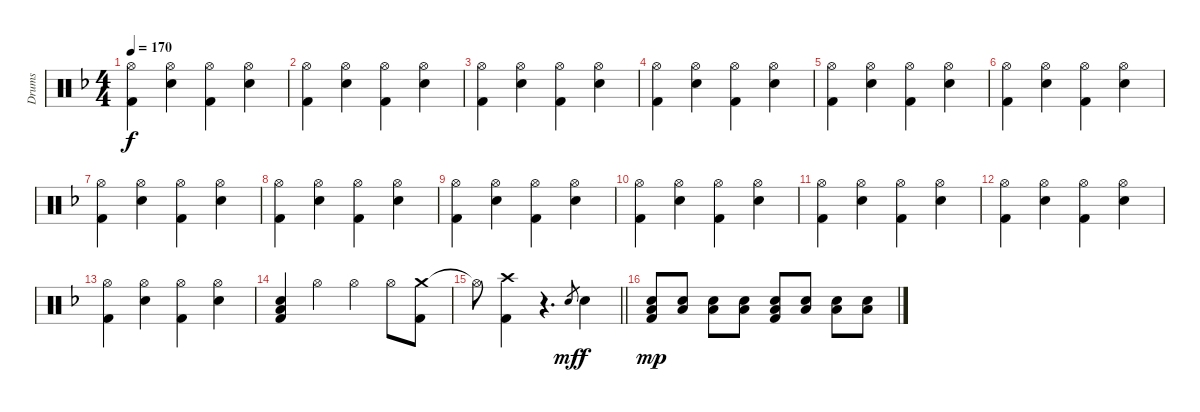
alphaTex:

\track ("Drums" "Drums") {instrument percussion}
\staff {score}
\articulation defaults
\ts (4 4)
\tempo 170
\clef neutral
\ks f
("Hi-Hat (open)" "Kick (hit) 2").4{dy f} ("Hi-Hat (open)" "Electric Snare (hit)").4 ("Hi-Hat (open)" "Kick (hit) 2").4 ("Hi-Hat (open)" "Electric Snare (hit)").4 |
("Hi-Hat (open)" "Kick (hit) 2").4 ("Hi-Hat (open)" "Electric Snare (hit)").4 ("Hi-Hat (open)" "Kick (hit) 2").4 ("Hi-Hat (open)" "Electric Snare (hit)").4 |
("Hi-Hat (open)" "Kick (hit) 2").4 ("Hi-Hat (open)" "Electric Snare (hit)").4 ("Hi-Hat (open)" "Kick (hit) 2").4 ("Hi-Hat (open)" "Electric Snare (hit)").4 |
("Hi-Hat (open)" "Kick (hit) 2").4 ("Hi-Hat (open)" "Electric Snare (hit)").4 ("Hi-Hat (open)" "Kick (hit) 2").4 ("Hi-Hat (open)" "Electric Snare (hit)").4 |
("Hi-Hat (open)" "Kick (hit) 2").4 ("Hi-Hat (open)" "Electric Snare (hit)").4 ("Hi-Hat (open)" "Kick (hit) 2").4 ("Hi-Hat (open)" "Electric Snare (hit)").4 |
("Hi-Hat (open)" "Kick (hit) 2").4 ("Hi-Hat (open)" "Electric Snare (hit)").4 ("Hi-Hat (open)" "Kick (hit) 2").4 ("Hi-Hat (open)" "Electric Snare (hit)").4 |
("Hi-Hat (open)" "Kick (hit) 2").4 ("Hi-Hat (open)" "Electric Snare (hit)").4 ("Hi-Hat (open)" "Kick (hit) 2").4 ("Hi-Hat (open)" "Electric Snare (hit)").4 |
("Hi-Hat (open)" "Kick (hit) 2").4 ("Hi-Hat (open)" "Electric Snare (hit)").4 ("Hi-Hat (open)" "Kick (hit) 2").4 ("Hi-Hat (open)" "Electric Snare (hit)").4 |
("Hi-Hat (open)" "Kick (hit) 2").4 ("Hi-Hat (open)" "Electric Snare (hit)").4 ("Hi-Hat (open)" "Kick (hit) 2").4 ("Hi-Hat (open)" "Electric Snare (hit)").4 |
("Hi-Hat (open)" "Kick (hit) 2").4 ("Hi-Hat (open)" "Electric Snare (hit)").4 ("Hi-Hat (open)" "Kick (hit) 2").4 ("Hi-Hat (open)" "Electric Snare (hit)").4 |
("Hi-Hat (open)" "Kick (hit) 2").4 ("Hi-Hat (open)" "Electric Snare (hit)").4 ("Hi-Hat (open)" "Kick (hit) 2").4 ("Hi-Hat (open)" "Electric Snare (hit)").4 |
("Hi-Hat (open)" "Kick (hit) 2").4 ("Hi-Hat (open)" "Electric Snare (hit)").4 ("Hi-Hat (open)" "Kick (hit) 2").4 ("Hi-Hat (open)" "Electric Snare (hit)").4 |
("Hi-Hat (open)" "Kick (hit) 2").4 ("Hi-Hat (open)" "Electric Snare (hit)").4 ("Hi-Hat (open)" "Kick (hit) 2").4 ("Hi-Hat (open)" "Electric Snare (hit)").4 |
("Low Floor Tom (hit)" "Electric Snare (hit)" "Kick (hit) 2").4 "Hi-Hat (open)".4 "Hi-Hat (open)".4 "Hi-Hat (open)".8 ("Crash medium (hit)" "Kick (hit) 2").8 |
\barLineRight lightlight "Hi-Hat (open)"{t}.8
("Crash high (hit)" "Kick (hit) 2").4 r.4{d} "Electric Snare (hit)".8{gr dy mf} "Electric Snare (hit)".4{dy f} |
("Low Floor Tom (hit)" "Electric Snare (hit)" "Kick (hit) 2").8{dy mp} ("Low Floor Tom (hit)" "Electric Snare (hit)").8 ("Low Floor Tom (hit)" "Electric Snare (hit)").8 ("Low Floor Tom (hit)" "Electric Snare (hit)").8 ("Low Floor Tom (hit)" "Electric Snare (hit)" "Kick (hit) 2").8 ("Low Floor Tom (hit)" "Electric Snare (hit)").8 ("Low Floor Tom (hit)" "Electric Snare (hit)").8 ("Low Floor Tom (hit)" "Electric Snare (hit)").8
